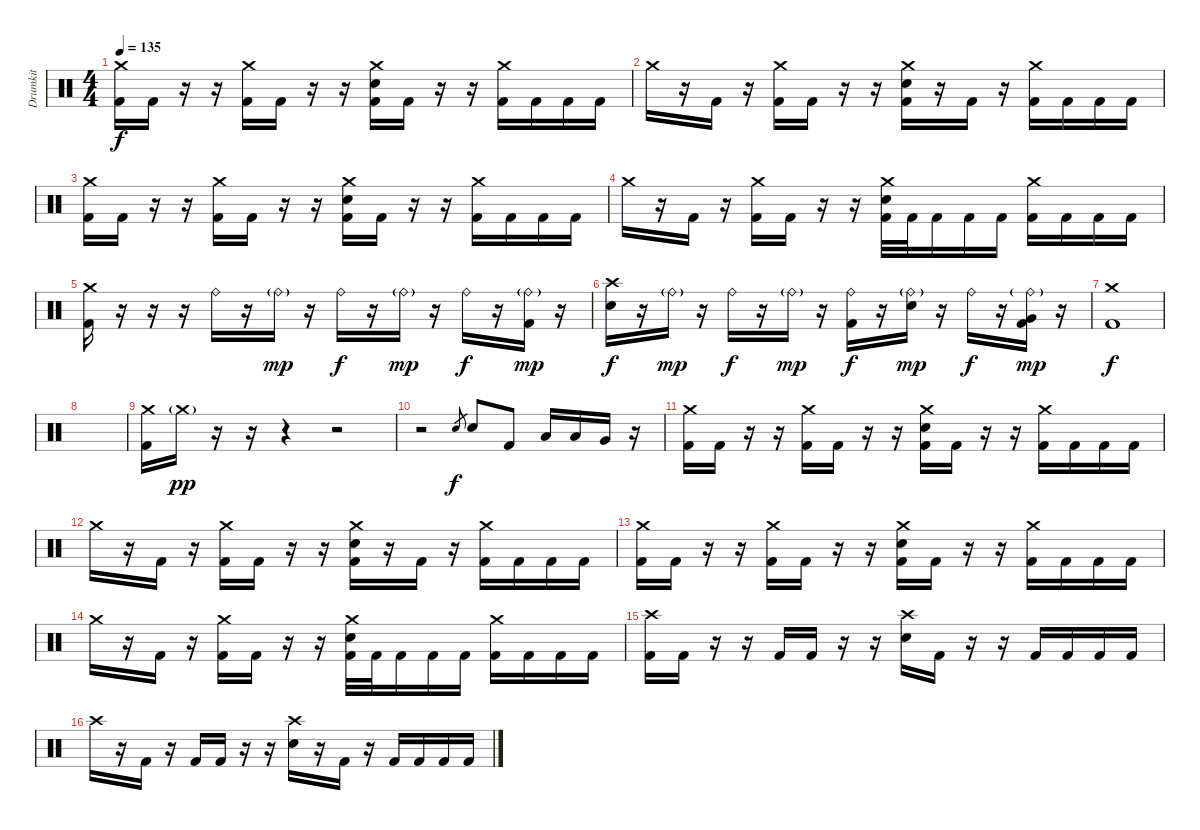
\track ("Drumkit" "Drumkit") {instrument percussion}
\staff {score}
\articulation defaults
\ts (4 4)
\tempo 135
\clef neutral
\ks c
("Crash medium (hit)" "Kick (hit) 2").16{dy f} "Kick (hit) 2".16 r.16 r.16 ("Crash medium (hit)" "Kick (hit) 2").16 "Kick (hit) 2".16 r.16 r.16 ("Crash medium (hit)" "Electric Snare (hit)" "Kick (hit) 2").16 "Kick (hit) 2".16 r.16 r.16 ("Crash medium (hit)" "Kick (hit) 2").16 "Kick (hit) 2".16 "Kick (hit) 2".16 "Kick (hit) 2".16 |
"Crash medium (hit)".16 r.16 "Kick (hit) 2".16 r.16 ("Crash medium (hit)" "Kick (hit) 2").16 "Kick (hit) 2".16 r.16 r.16 ("Crash medium (hit)" "Electric Snare (hit)" "Kick (hit) 2").16 r.16 "Kick (hit) 2".16 r.16 ("Crash medium (hit)" "Kick (hit) 2").16 "Kick (hit) 2".16 "Kick (hit) 2".16 "Kick (hit) 2".16 |
("Crash medium (hit)" "Kick (hit) 2").16 "Kick (hit) 2".16 r.16 r.16 ("Crash medium (hit)" "Kick (hit) 2").16 "Kick (hit) 2".16 r.16 r.16 ("Crash medium (hit)" "Electric Snare (hit)" "Kick (hit) 2").16 "Kick (hit) 2".16 r.16 r.16 ("Crash medium (hit)" "Kick (hit) 2").16 "Kick (hit) 2".16 "Kick (hit) 2".16 "Kick (hit) 2".16 |
"Crash medium (hit)".16 r.16 "Kick (hit) 2".16 r.16 ("Crash medium (hit)" "Kick (hit) 2").16 "Kick (hit) 2".16 r.16 r.16 ("Crash medium (hit)" "Electric Snare (hit)" "Kick (hit) 2").32 "Kick (hit) 2".32 "Kick (hit) 2".16 "Kick (hit) 2".16 "Kick (hit) 2".16 ("Crash medium (hit)" "Kick (hit) 2").16 "Kick (hit) 2".16 "Kick (hit) 2".16 "Kick (hit) 2".16 |
("Crash medium (hit)" "Kick (hit) 2").16 r.16 r.16 r.16 "Ride (bell)".16 r.16 "Ride (bell)"{g}.16{dy mp} r.16 "Ride (bell)".16{dy f} r.16 "Ride (bell)"{g}.16{dy mp} r.16 "Ride (bell)".16{dy f} r.16 ("Ride (bell)"{g} "Kick (hit) 2").16{dy mp} r.16 |
("Crash high (hit)" "Electric Snare (hit)").16{dy f} r.16 "Ride (bell)"{g}.16{dy mp} r.16 "Ride (bell)".16{dy f} r.16 "Ride (bell)"{g}.16{dy mp} r.16 ("Ride (bell)" "Kick (hit) 2").16{dy f} r.16 ("Ride (bell)"{g} "Electric Snare (hit)").16{dy mp} r.16 "Ride (bell)".16{dy f} r.16 ("Ride (bell)"{g} "Very Low Tom (hit)" "Kick (hit) 2").16{dy mp} r.16 |
("Crash medium (hit)" "Kick (hit) 2").1{dy f} |
|
("Crash medium (hit)" "Kick (hit) 2").16 "Crash medium (hit)"{g}.16{dy pp} r.16 r.16 r.4 r.2 |
r.2 "Electric Snare (hit)".8{gr dy f} "Electric Snare (hit)".8 "Kick (hit) 2".8 "Low Tom (hit)".16 "Low Tom (hit)".16 "Very Low Tom (hit)".16 r.16 |
("Crash medium (hit)" "Kick (hit) 2").16 "Kick (hit) 2".16 r.16 r.16 ("Crash medium (hit)" "Kick (hit) 2").16 "Kick (hit) 2".16 r.16 r.16 ("Crash medium (hit)" "Electric Snare (hit)" "Kick (hit) 2").16 "Kick (hit) 2".16 r.16 r.16 ("Crash medium (hit)" "Kick (hit) 2").16 "Kick (hit) 2".16 "Kick (hit) 2".16 "Kick (hit) 2".16 |
"Crash medium (hit)".16 r.16 "Kick (hit) 2".16 r.16 ("Crash medium (hit)" "Kick (hit) 2").16 "Kick (hit) 2".16 r.16 r.16 ("Crash medium (hit)" "Electric Snare (hit)" "Kick (hit) 2").16 r.16 "Kick (hit) 2".16 r.16 ("Crash medium (hit)" "Kick (hit) 2").16 "Kick (hit) 2".16 "Kick (hit) 2".16 "Kick (hit) 2".16 |
("Crash medium (hit)" "Kick (hit) 2").16 "Kick (hit) 2".16 r.16 r.16 ("Crash medium (hit)" "Kick (hit) 2").16 "Kick (hit) 2".16 r.16 r.16 ("Crash medium (hit)" "Electric Snare (hit)" "Kick (hit) 2").16 "Kick (hit) 2".16 r.16 r.16 ("Crash medium (hit)" "Kick (hit) 2").16 "Kick (hit) 2".16 "Kick (hit) 2".16 "Kick (hit) 2".16 |
"Crash medium (hit)".16 r.16 "Kick (hit) 2".16 r.16 ("Crash medium (hit)" "Kick (hit) 2").16 "Kick (hit) 2".16 r.16 r.16 ("Crash medium (hit)" "Electric Snare (hit)" "Kick (hit) 2").32 "Kick (hit) 2".32 "Kick (hit) 2".16 "Kick (hit) 2".16 "Kick (hit) 2".16 ("Crash medium (hit)" "Kick (hit) 2").16 "Kick (hit) 2".16 "Kick (hit) 2".16 "Kick (hit) 2".16 |
("Crash high (hit)" "Kick (hit) 2").16 "Kick (hit) 2".16 r.16 r.16 "Kick (hit) 2".16 "Kick (hit) 2".16 r.16 r.16 ("Crash high (hit)" "Electric Snare (hit)").16 "Kick (hit) 2".16 r.16 r.16 "Kick (hit) 2".16 "Kick (hit) 2".16 "Kick (hit) 2".16 "Kick (hit) 2".16 |
"Crash high (hit)".16 r.16 "Kick (hit) 2".16 r.16 "Kick (hit) 2".16 "Kick (hit) 2".16 r.16 r.16 ("Crash high (hit)" "Electric Snare (hit)").16 r.16 "Kick (hit) 2".16 r.16 "Kick (hit) 2".16 "Kick (hit) 2".16 "Kick (hit) 2".16 "Kick (hit) 2".16
